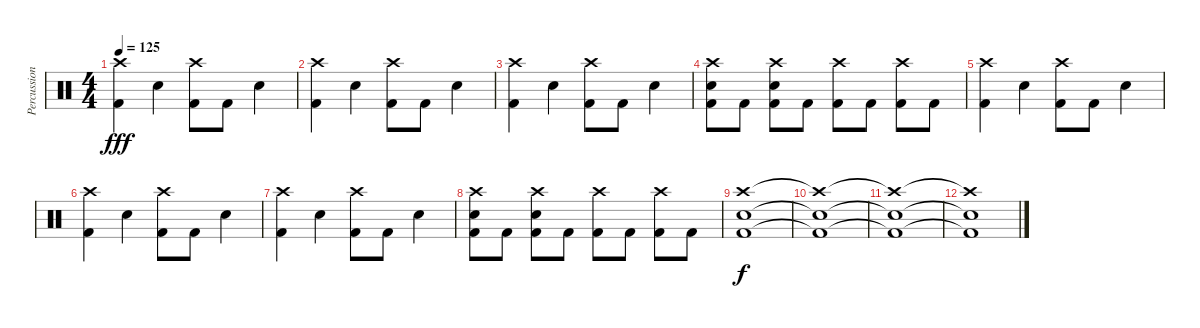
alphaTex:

\track ("Percussion" "Percussion") {instrument percussion}
\staff {score}
\articulation defaults
\ts (4 4)
\tempo 125
\clef neutral
\ks c
("Crash high (hit)" "Kick (hit) 2").4{dy fff} "Electric Snare (hit)".4 ("Crash high (hit)" "Kick (hit) 2").8 "Kick (hit) 2".8 "Electric Snare (hit)".4 |
("Crash high (hit)" "Kick (hit) 2").4 "Electric Snare (hit)".4 ("Crash high (hit)" "Kick (hit) 2").8 "Kick (hit) 2".8 "Electric Snare (hit)".4 |
("Crash high (hit)" "Kick (hit) 2").4 "Electric Snare (hit)".4 ("Crash high (hit)" "Kick (hit) 2").8 "Kick (hit) 2".8 "Electric Snare (hit)".4 |
("Crash high (hit)" "Electric Snare (hit)" "Kick (hit) 2").8 "Kick (hit) 2".8 ("Crash high (hit)" "Electric Snare (hit)" "Kick (hit) 2").8 "Kick (hit) 2".8 ("Crash high (hit)" "Kick (hit) 2").8 "Kick (hit) 2".8 ("Crash high (hit)" "Kick (hit) 2").8 "Kick (hit) 2".8 |
("Crash high (hit)" "Kick (hit) 2").4 "Electric Snare (hit)".4 ("Crash high (hit)" "Kick (hit) 2").8 "Kick (hit) 2".8 "Electric Snare (hit)".4 |
("Crash high (hit)" "Kick (hit) 2").4 "Electric Snare (hit)".4 ("Crash high (hit)" "Kick (hit) 2").8 "Kick (hit) 2".8 "Electric Snare (hit)".4 |
("Crash high (hit)" "Kick (hit) 2").4 "Electric Snare (hit)".4 ("Crash high (hit)" "Kick (hit) 2").8 "Kick (hit) 2".8 "Electric Snare (hit)".4 |
("Crash high (hit)" "Electric Snare (hit)" "Kick (hit) 2").8 "Kick (hit) 2".8 ("Crash high (hit)" "Electric Snare (hit)" "Kick (hit) 2").8 "Kick (hit) 2".8 ("Crash high (hit)" "Kick (hit) 2").8 "Kick (hit) 2".8 ("Crash high (hit)" "Kick (hit) 2").8 "Kick (hit) 2".8 |
("Crash high (hit)" "Electric Snare (hit)" "Kick (hit) 2").1{dy f} |
("Crash high (hit)"{t} "Electric Snare (hit)"{t} "Kick (hit) 2"{t}).1 |
("Crash high (hit)"{t} "Electric Snare (hit)"{t} "Kick (hit) 2"{t}).1 |
("Crash high (hit)"{t} "Electric Snare (hit)"{t} "Kick (hit) 2"{t}).1
